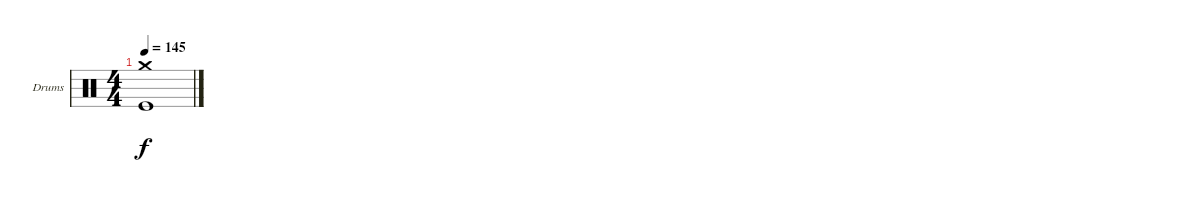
\bracketExtendMode groupsimilarinstruments
\firstSystemTrackNameOrientation horizontal
\otherSystemsTrackNameOrientation horizontal
\track ("Drumkit" "Drums") {instrument percussion}
\staff {score}
\articulation defaults
\ts (4 4)
\tempo 145
\clef neutral
\ks c
("Crash medium (hit)" "Kick (hit)").1{dy f}
